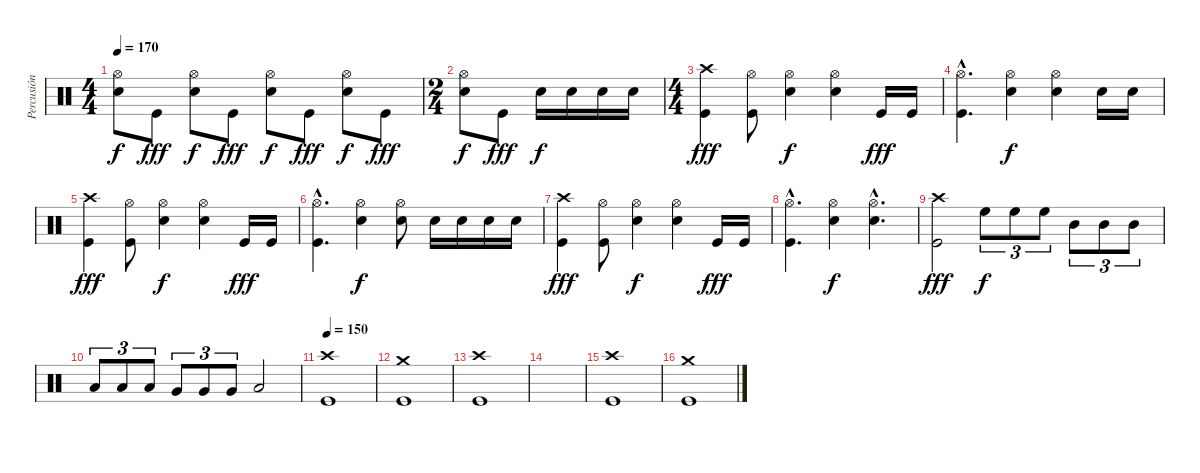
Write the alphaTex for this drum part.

\track ("Percusión" "Percusión") {instrument percussion}
\staff {score}
\articulation defaults
\ts (4 4)
\tempo 170
\clef neutral
\ks c
("Hi-Hat (open)" "Electric Snare (hit)").8{dy f} "Kick (hit)".8{dy fff} ("Hi-Hat (open)" "Electric Snare (hit)").8{dy f} "Kick (hit)".8{dy fff} ("Hi-Hat (open)" "Electric Snare (hit)").8{dy f} "Kick (hit)".8{dy fff} ("Hi-Hat (open)" "Electric Snare (hit)").8{dy f} "Kick (hit)".8{dy fff} |
\ts (2 4)
("Hi-Hat (open)" "Electric Snare (hit)").8{dy f} "Kick (hit)".8{dy fff} "Electric Snare (hit)".16{dy f} "Electric Snare (hit)".16 "Electric Snare (hit)".16 "Electric Snare (hit)".16 |
\ts (4 4)
("Crash high (hit)" "Kick (hit)").4{dy fff} ("Hi-Hat (open)" "Kick (hit)").8 ("Hi-Hat (open)" "Electric Snare (hit)").4{dy f} ("Hi-Hat (open)" "Electric Snare (hit)").4 "Kick (hit)".16{dy fff} "Kick (hit)".16 |
("Hi-Hat (open)"{hac} "Kick (hit)"{hac}).4{d} ("Hi-Hat (open)" "Electric Snare (hit)").4{dy f} ("Hi-Hat (open)" "Electric Snare (hit)").4 "Electric Snare (hit)".16 "Electric Snare (hit)".16 |
("Crash high (hit)" "Kick (hit)").4{dy fff} ("Hi-Hat (open)" "Kick (hit)").8 ("Hi-Hat (open)" "Electric Snare (hit)").4{dy f} ("Hi-Hat (open)" "Electric Snare (hit)").4 "Kick (hit)".16{dy fff} "Kick (hit)".16 |
("Hi-Hat (open)"{hac} "Kick (hit)"{hac}).4{d} ("Hi-Hat (open)" "Electric Snare (hit)").4{dy f} ("Hi-Hat (open)" "Electric Snare (hit)").8 "Electric Snare (hit)".16 "Electric Snare (hit)".16 "Electric Snare (hit)".16 "Electric Snare (hit)".16 |
("Crash high (hit)" "Kick (hit)").4{dy fff} ("Hi-Hat (open)" "Kick (hit)").8 ("Hi-Hat (open)" "Electric Snare (hit)").4{dy f} ("Hi-Hat (open)" "Electric Snare (hit)").4 "Kick (hit)".16{dy fff} "Kick (hit)".16 |
("Hi-Hat (open)"{hac} "Kick (hit)"{hac}).4{d} ("Hi-Hat (open)" "Electric Snare (hit)").4{dy f} ("Hi-Hat (open)"{hac} "Electric Snare (hit)"{hac}).4{d} |
("Crash high (hit)" "Kick (hit)").2{dy fff} "High Floor Tom (hit)".8{tu (3 2) dy f} "High Floor Tom (hit)".8{tu (3 2)} "High Floor Tom (hit)".8{tu (3 2)} "Mid Tom (hit)".8{tu (3 2)} "Mid Tom (hit)".8{tu (3 2)} "Mid Tom (hit)".8{tu (3 2)} |
"Low Tom (hit)".8{tu (3 2)} "Low Tom (hit)".8{tu (3 2)} "Low Tom (hit)".8{tu (3 2)} "Very Low Tom (hit)".8{tu (3 2)} "Very Low Tom (hit)".8{tu (3 2)} "Very Low Tom (hit)".8{tu (3 2)} "Low Floor Tom (hit)".2 |
\tempo 150
("Crash high (hit)" "Kick (hit)").1 |
("Crash medium (hit)" "Kick (hit)").1 |
("Crash high (hit)" "Kick (hit)").1 |
|
("Crash high (hit)" "Kick (hit)").1 |
("Crash medium (hit)" "Kick (hit)").1
